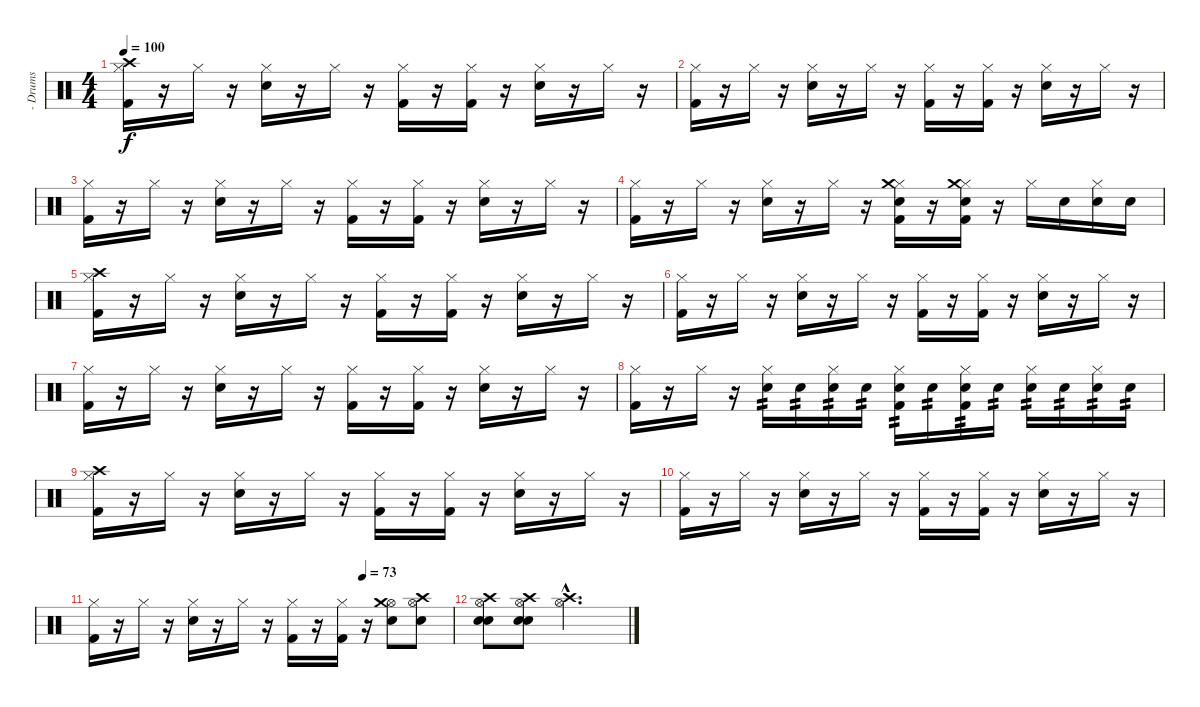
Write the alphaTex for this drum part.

\track ("- Drums" "- Drums") {instrument percussion}
\staff {score}
\articulation defaults
\ts (4 4)
\tempo 100
\clef neutral
\ks c
("Hi-Hat (closed)" "Crash high (hit)" "Kick (hit) 2").16{dy f} r.16 "Hi-Hat (closed)".16 r.16 ("Hi-Hat (closed)" "Electric Snare (hit)").16 r.16 "Hi-Hat (closed)".16 r.16 ("Hi-Hat (closed)" "Kick (hit) 2").16 r.16 ("Hi-Hat (closed)" "Kick (hit) 2").16 r.16 ("Hi-Hat (closed)" "Electric Snare (hit)").16 r.16 "Hi-Hat (closed)".16 r.16 |
("Hi-Hat (closed)" "Kick (hit) 2").16 r.16 "Hi-Hat (closed)".16 r.16 ("Hi-Hat (closed)" "Electric Snare (hit)").16 r.16 "Hi-Hat (closed)".16 r.16 ("Hi-Hat (closed)" "Kick (hit) 2").16 r.16 ("Hi-Hat (closed)" "Kick (hit) 2").16 r.16 ("Hi-Hat (closed)" "Electric Snare (hit)").16 r.16 "Hi-Hat (closed)".16 r.16 |
("Hi-Hat (closed)" "Kick (hit) 2").16 r.16 "Hi-Hat (closed)".16 r.16 ("Hi-Hat (closed)" "Electric Snare (hit)").16 r.16 "Hi-Hat (closed)".16 r.16 ("Hi-Hat (closed)" "Kick (hit) 2").16 r.16 ("Hi-Hat (closed)" "Kick (hit) 2").16 r.16 ("Hi-Hat (closed)" "Electric Snare (hit)").16 r.16 "Hi-Hat (closed)".16 r.16 |
("Hi-Hat (closed)" "Kick (hit) 2").16 r.16 "Hi-Hat (closed)".16 r.16 ("Hi-Hat (closed)" "Electric Snare (hit)").16 r.16 "Hi-Hat (closed)".16 r.16 ("Hi-Hat (closed)" "Crash medium (hit)" "Electric Snare (hit)" "Kick (hit) 2").16 r.16 ("Hi-Hat (closed)" "Crash medium (hit)" "Electric Snare (hit)" "Kick (hit) 2").16 r.16 "Hi-Hat (closed)".16 "Electric Snare (hit)".16 ("Hi-Hat (closed)" "Electric Snare (hit)").16 "Electric Snare (hit)".16 |
("Hi-Hat (closed)" "Crash high (hit)" "Kick (hit) 2").16 r.16 "Hi-Hat (closed)".16 r.16 ("Hi-Hat (closed)" "Electric Snare (hit)").16 r.16 "Hi-Hat (closed)".16 r.16 ("Hi-Hat (closed)" "Kick (hit) 2").16 r.16 ("Hi-Hat (closed)" "Kick (hit) 2").16 r.16 ("Hi-Hat (closed)" "Electric Snare (hit)").16 r.16 "Hi-Hat (closed)".16 r.16 |
("Hi-Hat (closed)" "Kick (hit) 2").16 r.16 "Hi-Hat (closed)".16 r.16 ("Hi-Hat (closed)" "Electric Snare (hit)").16 r.16 "Hi-Hat (closed)".16 r.16 ("Hi-Hat (closed)" "Kick (hit) 2").16 r.16 ("Hi-Hat (closed)" "Kick (hit) 2").16 r.16 ("Hi-Hat (closed)" "Electric Snare (hit)").16 r.16 "Hi-Hat (closed)".16 r.16 |
("Hi-Hat (closed)" "Kick (hit) 2").16 r.16 "Hi-Hat (closed)".16 r.16 ("Hi-Hat (closed)" "Electric Snare (hit)").16 r.16 "Hi-Hat (closed)".16 r.16 ("Hi-Hat (closed)" "Kick (hit) 2").16 r.16 ("Hi-Hat (closed)" "Kick (hit) 2").16 r.16 ("Hi-Hat (closed)" "Electric Snare (hit)").16 r.16 "Hi-Hat (closed)".16 r.16 |
("Hi-Hat (closed)" "Kick (hit) 2").16 r.16 "Hi-Hat (closed)".16 r.16 ("Hi-Hat (closed)" "Electric Snare (hit)").16{tp 2} "Electric Snare (hit)".16{tp 2} ("Hi-Hat (closed)" "Electric Snare (hit)").16{tp 2} "Electric Snare (hit)".16{tp 2} ("Hi-Hat (closed)" "Electric Snare (hit)" "Kick (hit) 2").16{tp 2} "Electric Snare (hit)".16{tp 2} ("Hi-Hat (closed)" "Electric Snare (hit)" "Kick (hit) 2").16{tp 2} "Electric Snare (hit)".16{tp 2} ("Hi-Hat (closed)" "Electric Snare (hit)").16{tp 2} "Electric Snare (hit)".16{tp 2} ("Hi-Hat (closed)" "Electric Snare (hit)").16{tp 2} "Electric Snare (hit)".16{tp 2} |
("Hi-Hat (closed)" "Crash high (hit)" "Kick (hit) 2").16 r.16 "Hi-Hat (closed)".16 r.16 ("Hi-Hat (closed)" "Electric Snare (hit)").16 r.16 "Hi-Hat (closed)".16 r.16 ("Hi-Hat (closed)" "Kick (hit) 2").16 r.16 ("Hi-Hat (closed)" "Kick (hit) 2").16 r.16 ("Hi-Hat (closed)" "Electric Snare (hit)").16 r.16 "Hi-Hat (closed)".16 r.16 |
("Hi-Hat (closed)" "Kick (hit) 2").16 r.16 "Hi-Hat (closed)".16 r.16 ("Hi-Hat (closed)" "Electric Snare (hit)").16 r.16 "Hi-Hat (closed)".16 r.16 ("Hi-Hat (closed)" "Kick (hit) 2").16 r.16 ("Hi-Hat (closed)" "Kick (hit) 2").16 r.16 ("Hi-Hat (closed)" "Electric Snare (hit)").16 r.16 "Hi-Hat (closed)".16 r.16 |
\tempo (73 0.75)
("Hi-Hat (closed)" "Kick (hit) 2").16 r.16 "Hi-Hat (closed)".16 r.16 ("Hi-Hat (closed)" "Electric Snare (hit)").16 r.16 "Hi-Hat (closed)".16 r.16 ("Hi-Hat (closed)" "Kick (hit) 2").16 r.16 ("Hi-Hat (closed)" "Kick (hit) 2").16 r.16 ("Hi-Hat (open)" "Crash medium (hit)" "Snare (hit) 2").8 ("Hi-Hat (open)" "Crash high (hit)" "Electric Snare (hit)").8 |
("Hi-Hat (open)" "Crash high (hit)" "Electric Snare (hit)" "Snare (hit) 2").8 ("Hi-Hat (open)" "Crash high (hit)" "Electric Snare (hit)" "Snare (hit) 2").8 ("Hi-Hat (open)"{hac} "Crash high (hit)"{hac}).2{d}
